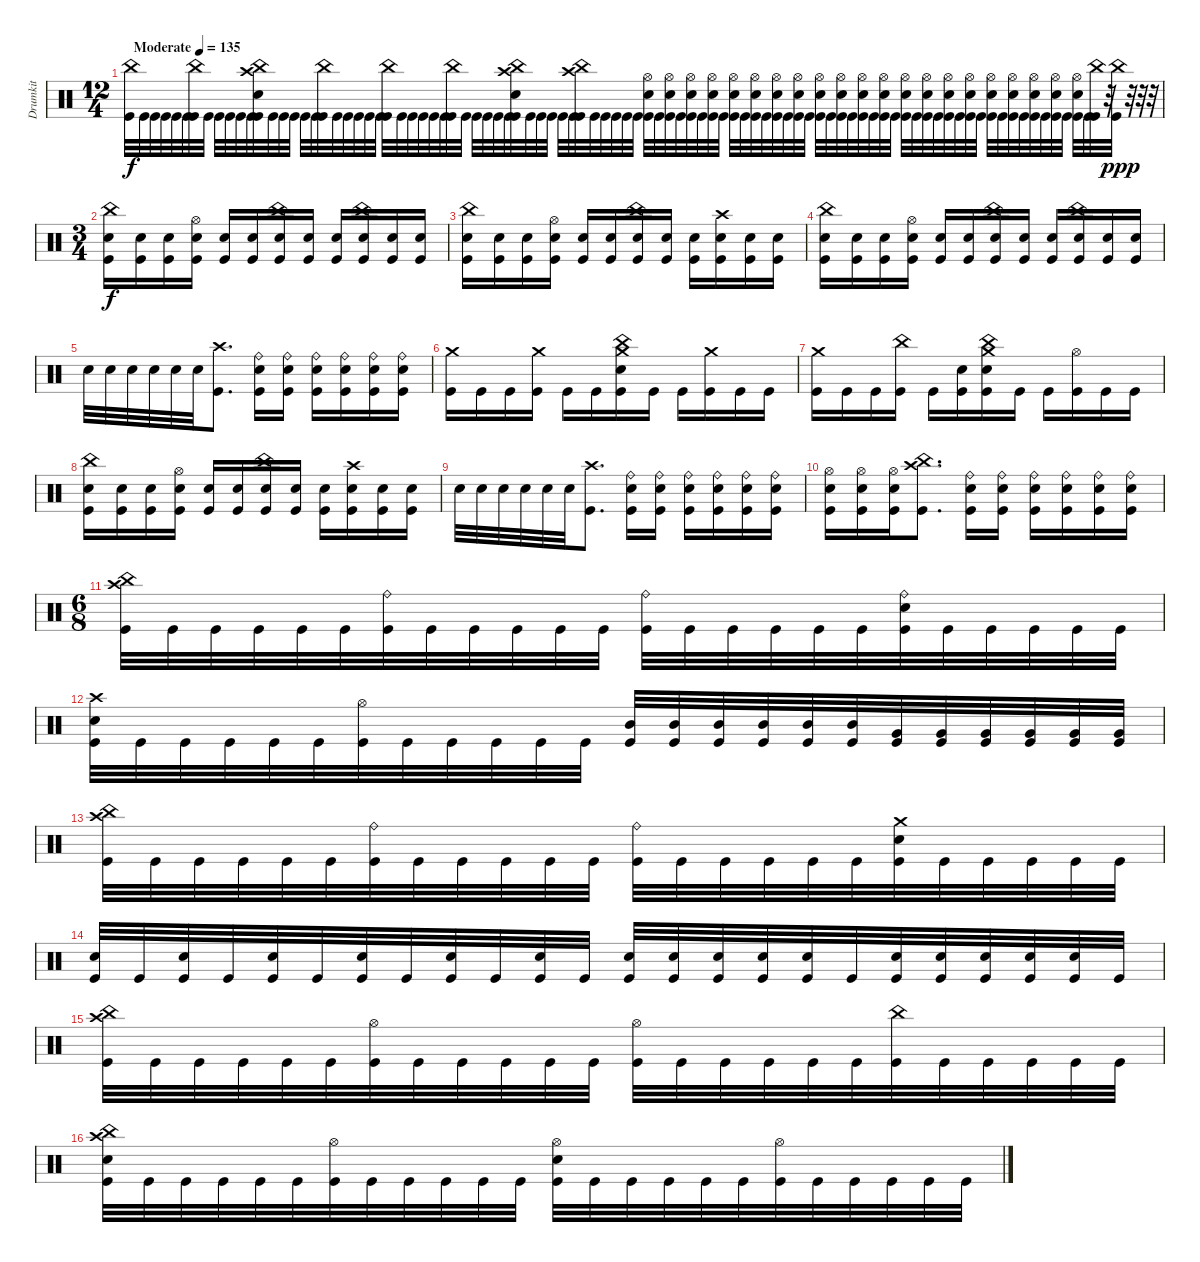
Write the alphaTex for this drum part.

\track ("Drumkit" "Drumkit") {mute instrument percussion}
\staff {score}
\articulation defaults
\ts (12 4)
\tempo (135 "Moderate")
\clef neutral
\ks c
("Kick (hit)" "China (hit)").32{dy f} "Kick (hit)".32 "Kick (hit)".32 "Kick (hit)".32 "Kick (hit)".32 "Kick (hit)".32 ("Kick (hit)" "China (hit)").32 "Kick (hit)".32 "Kick (hit)".32 "Kick (hit)".32 "Kick (hit)".32 "Kick (hit)".32 ("Kick (hit)" "Snare (hit) 2" "China (hit)" "Crash high (hit)").32 "Kick (hit)".32 "Kick (hit)".32 "Kick (hit)".32 "Kick (hit)".32 "Kick (hit)".32 ("Kick (hit)" "China (hit)").32 "Kick (hit)".32 "Kick (hit)".32 "Kick (hit)".32 "Kick (hit)".32 "Kick (hit)".32 ("Kick (hit)" "China (hit)").32 "Kick (hit)".32 "Kick (hit)".32 "Kick (hit)".32 "Kick (hit)".32 "Kick (hit)".32 ("Kick (hit)" "China (hit)").32 "Kick (hit)".32 "Kick (hit)".32 "Kick (hit)".32 "Kick (hit)".32 "Kick (hit)".32 ("Kick (hit)" "China (hit)" "Snare (hit) 2" "Crash high (hit)").32 "Kick (hit)".32 "Kick (hit)".32 "Kick (hit)".32 "Kick (hit)".32 "Kick (hit)".32 ("Kick (hit)" "China (hit)" "Crash high (hit)").32 "Kick (hit)".32 "Kick (hit)".32 "Kick (hit)".32 "Kick (hit)".32 "Kick (hit)".32 ("Kick (hit)" "Snare (hit) 2" "Hi-Hat (open)").32 "Kick (hit)".32 ("Kick (hit)" "Snare (hit) 2" "Hi-Hat (open)").32 "Kick (hit)".32 ("Kick (hit)" "Snare (hit) 2" "Hi-Hat (open)").32 "Kick (hit)".32 ("Kick (hit)" "Snare (hit) 2" "Hi-Hat (open)").32 "Kick (hit)".32 ("Kick (hit)" "Snare (hit) 2" "Hi-Hat (open)").32 "Kick (hit)".32 ("Kick (hit)" "Snare (hit) 2" "Hi-Hat (open)").32 "Kick (hit)".32 ("Kick (hit)" "Snare (hit) 2" "Hi-Hat (open)").32 "Kick (hit)".32 ("Kick (hit)" "Snare (hit) 2" "Hi-Hat (open)").32 "Kick (hit)".32 ("Kick (hit)" "Snare (hit) 2" "Hi-Hat (open)").32 "Kick (hit)".32 ("Kick (hit)" "Snare (hit) 2" "Hi-Hat (open)").32 "Kick (hit)".32 ("Kick (hit)" "Snare (hit) 2" "Hi-Hat (open)").32 "Kick (hit)".32 ("Kick (hit)" "Snare (hit) 2" "Hi-Hat (open)").32 "Kick (hit)".32 ("Kick (hit)" "Snare (hit) 2" "Hi-Hat (open)").32 "Kick (hit)".32 ("Kick (hit)" "Snare (hit) 2" "Hi-Hat (open)").32 "Kick (hit)".32 ("Kick (hit)" "Snare (hit) 2" "Hi-Hat (open)").32 "Kick (hit)".32 ("Kick (hit)" "Snare (hit) 2" "Hi-Hat (open)").32 "Kick (hit)".32 ("Kick (hit)" "Snare (hit) 2" "Hi-Hat (open)").32 "Kick (hit)".32 ("Kick (hit)" "Snare (hit) 2" "Hi-Hat (open)").32 "Kick (hit)".32 ("Kick (hit)" "Snare (hit) 2" "Hi-Hat (open)").32 "Kick (hit)".32 ("Kick (hit)" "Snare (hit) 2" "Hi-Hat (open)").32 "Kick (hit)".32 ("Kick (hit)" "Snare (hit) 2" "Hi-Hat (open)").32 "Kick (hit)".32 ("Kick (hit)" "China (hit)").32 r.32 ("Kick (hit)" "China (hit)").32{dy ppp} r.32 r.32 r.32 |
\ts (3 4)
("Kick (hit)" "Snare (hit) 2" "China (hit)").16{dy f} ("Kick (hit)" "Snare (hit) 2").16 ("Kick (hit)" "Snare (hit) 2").16 ("Kick (hit)" "Snare (hit) 2" "Hi-Hat (open)").16 ("Kick (hit)" "Snare (hit) 2").16 ("Kick (hit)" "Snare (hit) 2").16 ("Kick (hit)" "Snare (hit) 2" "China (hit)").16 ("Kick (hit)" "Snare (hit) 2").16 ("Kick (hit)" "Snare (hit) 2").16 ("Kick (hit)" "Snare (hit) 2" "China (hit)").16 ("Kick (hit)" "Snare (hit) 2").16 ("Kick (hit)" "Snare (hit) 2").16 |
("Kick (hit)" "Snare (hit) 2" "China (hit)").16 ("Kick (hit)" "Snare (hit) 2").16 ("Kick (hit)" "Snare (hit) 2").16 ("Kick (hit)" "Snare (hit) 2" "Hi-Hat (open)").16 ("Kick (hit)" "Snare (hit) 2").16 ("Kick (hit)" "Snare (hit) 2").16 ("Kick (hit)" "Snare (hit) 2" "China (hit)").16 ("Kick (hit)" "Snare (hit) 2").16 ("Kick (hit)" "Snare (hit) 2").16 ("Kick (hit)" "Snare (hit) 2" "Crash high (hit)").16 ("Kick (hit)" "Snare (hit) 2").16 ("Kick (hit)" "Snare (hit) 2").16 |
("Kick (hit)" "Snare (hit) 2" "China (hit)").16 ("Kick (hit)" "Snare (hit) 2").16 ("Kick (hit)" "Snare (hit) 2").16 ("Kick (hit)" "Snare (hit) 2" "Hi-Hat (open)").16 ("Kick (hit)" "Snare (hit) 2").16 ("Kick (hit)" "Snare (hit) 2").16 ("Kick (hit)" "Snare (hit) 2" "China (hit)").16 ("Kick (hit)" "Snare (hit) 2").16 ("Kick (hit)" "Snare (hit) 2").16 ("Kick (hit)" "Snare (hit) 2" "China (hit)").16 ("Kick (hit)" "Snare (hit) 2").16 ("Kick (hit)" "Snare (hit) 2").16 |
"Snare (hit) 2".32 "Snare (hit) 2".32 "Snare (hit) 2".32 "Snare (hit) 2".32 "Snare (hit) 2".32 "Snare (hit) 2".32 ("Kick (hit)" "Crash high (hit)").8{d} ("Kick (hit)" "Ride (bell)" "Snare (hit) 2").16 ("Kick (hit)" "Ride (bell)" "Snare (hit) 2").16 ("Kick (hit)" "Ride (bell)" "Snare (hit) 2").16 ("Kick (hit)" "Ride (bell)" "Snare (hit) 2").16 ("Kick (hit)" "Ride (bell)" "Snare (hit) 2").16 ("Kick (hit)" "Ride (bell)" "Snare (hit) 2").16 |
("Kick (hit)" "Crash medium (hit)").16 "Kick (hit)".16 "Kick (hit)".16 ("Kick (hit)" "Crash medium (hit)").16 "Kick (hit)".16 "Kick (hit)".16 ("Kick (hit)" "Snare (hit) 2" "Crash medium (hit)" "China (hit)").16 "Kick (hit)".16 "Kick (hit)".16 ("Kick (hit)" "Crash medium (hit)").16 "Kick (hit)".16 "Kick (hit)".16 |
("Kick (hit)" "Crash medium (hit)").16 "Kick (hit)".16 "Kick (hit)".16 ("Kick (hit)" "China (hit)").16 "Kick (hit)".16 ("Kick (hit)" "Snare (hit) 2").16 ("Kick (hit)" "Snare (hit) 2" "Crash medium (hit)" "China (hit)").16 "Kick (hit)".16 "Kick (hit)".16 ("Kick (hit)" "Hi-Hat (open)").16 "Kick (hit)".16 "Kick (hit)".16 |
("Kick (hit)" "Snare (hit) 2" "China (hit)").16 ("Kick (hit)" "Snare (hit) 2").16 ("Kick (hit)" "Snare (hit) 2").16 ("Kick (hit)" "Snare (hit) 2" "Hi-Hat (open)").16 ("Kick (hit)" "Snare (hit) 2").16 ("Kick (hit)" "Snare (hit) 2").16 ("Kick (hit)" "Snare (hit) 2" "China (hit)").16 ("Kick (hit)" "Snare (hit) 2").16 ("Kick (hit)" "Snare (hit) 2").16 ("Kick (hit)" "Snare (hit) 2" "Crash high (hit)").16 ("Kick (hit)" "Snare (hit) 2").16 ("Kick (hit)" "Snare (hit) 2").16 |
"Snare (hit) 2".32 "Snare (hit) 2".32 "Snare (hit) 2".32 "Snare (hit) 2".32 "Snare (hit) 2".32 "Snare (hit) 2".32 ("Kick (hit)" "Crash high (hit)").8{d} ("Kick (hit)" "Ride (bell)" "Snare (hit) 2").16 ("Kick (hit)" "Ride (bell)" "Snare (hit) 2").16 ("Kick (hit)" "Ride (bell)" "Snare (hit) 2").16 ("Kick (hit)" "Ride (bell)" "Snare (hit) 2").16 ("Kick (hit)" "Ride (bell)" "Snare (hit) 2").16 ("Kick (hit)" "Ride (bell)" "Snare (hit) 2").16 |
("Kick (hit)" "Hi-Hat (open)" "Snare (hit) 2").16 ("Kick (hit)" "Hi-Hat (open)" "Snare (hit) 2").16 ("Kick (hit)" "Hi-Hat (open)" "Snare (hit) 2").16 ("Kick (hit)" "Crash high (hit)" "China (hit)").8{d} ("Kick (hit)" "Ride (bell)" "Snare (hit) 2").16 ("Kick (hit)" "Ride (bell)" "Snare (hit) 2").16 ("Kick (hit)" "Ride (bell)" "Snare (hit) 2").16 ("Kick (hit)" "Ride (bell)" "Snare (hit) 2").16 ("Kick (hit)" "Ride (bell)" "Snare (hit) 2").16 ("Kick (hit)" "Ride (bell)" "Snare (hit) 2").16 |
\ts (6 8)
("Kick (hit)" "China (hit)" "Crash high (hit)").32 "Kick (hit)".32 "Kick (hit)".32 "Kick (hit)".32 "Kick (hit)".32 "Kick (hit)".32 ("Kick (hit)" "Ride (bell)").32 "Kick (hit)".32 "Kick (hit)".32 "Kick (hit)".32 "Kick (hit)".32 "Kick (hit)".32 ("Kick (hit)" "Ride (bell)").32 "Kick (hit)".32 "Kick (hit)".32 "Kick (hit)".32 "Kick (hit)".32 "Kick (hit)".32 ("Kick (hit)" "Ride (bell)" "Snare (hit) 2").32 "Kick (hit)".32 "Kick (hit)".32 "Kick (hit)".32 "Kick (hit)".32 "Kick (hit)".32 |
("Kick (hit)" "Snare (hit) 2" "Crash high (hit)").32 "Kick (hit)".32 "Kick (hit)".32 "Kick (hit)".32 "Kick (hit)".32 "Kick (hit)".32 ("Kick (hit)" "Hi-Hat (open)").32 "Kick (hit)".32 "Kick (hit)".32 "Kick (hit)".32 "Kick (hit)".32 "Kick (hit)".32 ("Kick (hit)" "Mid Tom (hit)").32 ("Kick (hit)" "Mid Tom (hit)").32 ("Kick (hit)" "Mid Tom (hit)").32 ("Kick (hit)" "Mid Tom (hit)").32 ("Kick (hit)" "Mid Tom (hit)").32 ("Kick (hit)" "Mid Tom (hit)").32 ("Kick (hit)" "Very Low Tom (hit)").32 ("Kick (hit)" "Very Low Tom (hit)").32 ("Kick (hit)" "Very Low Tom (hit)").32 ("Kick (hit)" "Very Low Tom (hit)").32 ("Kick (hit)" "Very Low Tom (hit)").32 ("Kick (hit)" "Very Low Tom (hit)").32 |
("Kick (hit)" "China (hit)" "Crash high (hit)").32 "Kick (hit)".32 "Kick (hit)".32 "Kick (hit)".32 "Kick (hit)".32 "Kick (hit)".32 ("Kick (hit)" "Ride (bell)").32 "Kick (hit)".32 "Kick (hit)".32 "Kick (hit)".32 "Kick (hit)".32 "Kick (hit)".32 ("Kick (hit)" "Ride (bell)").32 "Kick (hit)".32 "Kick (hit)".32 "Kick (hit)".32 "Kick (hit)".32 "Kick (hit)".32 ("Kick (hit)" "Crash medium (hit)" "Snare (hit) 2").32 "Kick (hit)".32 "Kick (hit)".32 "Kick (hit)".32 "Kick (hit)".32 "Kick (hit)".32 |
("Kick (hit)" "Snare (hit) 2").32 "Kick (hit)".32 ("Kick (hit)" "Snare (hit) 2").32 "Kick (hit)".32 ("Kick (hit)" "Snare (hit) 2").32 "Kick (hit)".32 ("Kick (hit)" "Snare (hit) 2").32 "Kick (hit)".32 ("Kick (hit)" "Snare (hit) 2").32 "Kick (hit)".32 ("Kick (hit)" "Snare (hit) 2").32 "Kick (hit)".32 ("Kick (hit)" "Snare (hit) 2").32 ("Kick (hit)" "Snare (hit) 2").32 ("Kick (hit)" "Snare (hit) 2").32 ("Kick (hit)" "Snare (hit) 2").32 ("Kick (hit)" "Snare (hit) 2").32 "Kick (hit)".32 ("Kick (hit)" "Snare (hit) 2").32 ("Kick (hit)" "Snare (hit) 2").32 ("Kick (hit)" "Snare (hit) 2").32 ("Kick (hit)" "Snare (hit) 2").32 ("Kick (hit)" "Snare (hit) 2").32 "Kick (hit)".32 |
("Kick (hit)" "China (hit)" "Crash high (hit)").32 "Kick (hit)".32 "Kick (hit)".32 "Kick (hit)".32 "Kick (hit)".32 "Kick (hit)".32 ("Kick (hit)" "Hi-Hat (open)").32 "Kick (hit)".32 "Kick (hit)".32 "Kick (hit)".32 "Kick (hit)".32 "Kick (hit)".32 ("Kick (hit)" "Hi-Hat (open)").32 "Kick (hit)".32 "Kick (hit)".32 "Kick (hit)".32 "Kick (hit)".32 "Kick (hit)".32 ("Kick (hit)" "China (hit)").32 "Kick (hit)".32 "Kick (hit)".32 "Kick (hit)".32 "Kick (hit)".32 "Kick (hit)".32 |
("Kick (hit)" "Snare (hit) 2" "China (hit)" "Crash high (hit)").32 "Kick (hit)".32 "Kick (hit)".32 "Kick (hit)".32 "Kick (hit)".32 "Kick (hit)".32 ("Kick (hit)" "Hi-Hat (open)").32 "Kick (hit)".32 "Kick (hit)".32 "Kick (hit)".32 "Kick (hit)".32 "Kick (hit)".32 ("Kick (hit)" "Hi-Hat (open)" "Snare (hit) 2").32 "Kick (hit)".32 "Kick (hit)".32 "Kick (hit)".32 "Kick (hit)".32 "Kick (hit)".32 ("Kick (hit)" "Hi-Hat (open)").32 "Kick (hit)".32 "Kick (hit)".32 "Kick (hit)".32 "Kick (hit)".32 "Kick (hit)".32
